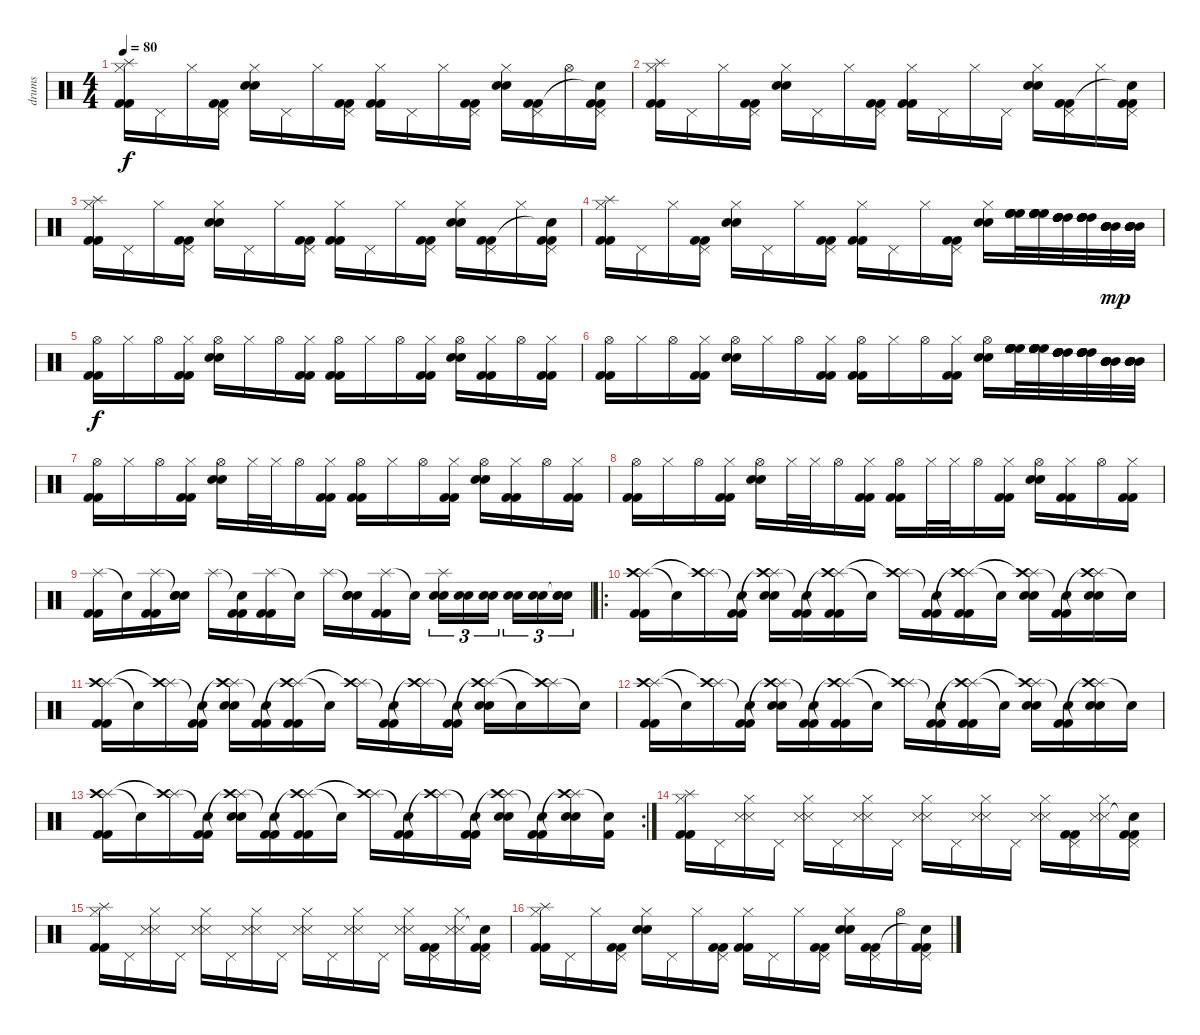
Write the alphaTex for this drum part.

\track ("drums" "drums") {instrument percussion}
\staff {score}
\articulation defaults
\ts (4 4)
\tempo 80
\clef neutral
\ks c
("Hi-Hat (closed)" "Splash (hit)" "Kick (hit) 2" "Kick (hit) 2").16{dy f} "Pedal Hi-Hat (hit)".16 "Hi-Hat (closed)".16 ("Pedal Hi-Hat (hit)" "Kick (hit) 2" "Kick (hit) 2").16 ("Hi-Hat (closed)" "Electric Snare (hit)" "Electric Snare (hit)").16 "Pedal Hi-Hat (hit)".16 "Hi-Hat (closed)".16 ("Pedal Hi-Hat (hit)" "Kick (hit) 2" "Kick (hit) 2").16 ("Hi-Hat (closed)" "Kick (hit) 2" "Kick (hit) 2").16 "Pedal Hi-Hat (hit)".16 "Hi-Hat (closed)".16 ("Pedal Hi-Hat (hit)" "Kick (hit) 2" "Kick (hit) 2").16 ("Hi-Hat (closed)" "Electric Snare (hit)" "Electric Snare (hit)").16 ("Pedal Hi-Hat (hit)" "Kick (hit) 2" "Kick (hit) 2").16 "Hi-Hat (open)".16 ("Pedal Hi-Hat (hit)" "Snare (hit)"{t} "Kick (hit) 2" "Kick (hit) 2").16 |
("Hi-Hat (closed)" "Splash (hit)" "Kick (hit) 2" "Kick (hit) 2").16 "Pedal Hi-Hat (hit)".16 "Hi-Hat (closed)".16 ("Pedal Hi-Hat (hit)" "Kick (hit) 2" "Kick (hit) 2").16 ("Hi-Hat (closed)" "Electric Snare (hit)" "Electric Snare (hit)").16 "Pedal Hi-Hat (hit)".16 "Hi-Hat (closed)".16 ("Pedal Hi-Hat (hit)" "Kick (hit) 2" "Kick (hit) 2").16 ("Hi-Hat (closed)" "Kick (hit) 2" "Kick (hit) 2").16 "Pedal Hi-Hat (hit)".16 "Hi-Hat (closed)".16 "Pedal Hi-Hat (hit)".16 ("Hi-Hat (closed)" "Electric Snare (hit)" "Electric Snare (hit)").16 ("Pedal Hi-Hat (hit)" "Kick (hit) 2" "Kick (hit) 2").16 "Hi-Hat (closed)".16 ("Pedal Hi-Hat (hit)" "Snare (hit)"{t} "Kick (hit) 2" "Kick (hit) 2").16 |
("Hi-Hat (closed)" "Splash (hit)" "Kick (hit) 2" "Kick (hit) 2").16 "Pedal Hi-Hat (hit)".16 "Hi-Hat (closed)".16 ("Pedal Hi-Hat (hit)" "Kick (hit) 2" "Kick (hit) 2").16 ("Hi-Hat (closed)" "Electric Snare (hit)" "Electric Snare (hit)").16 "Pedal Hi-Hat (hit)".16 "Hi-Hat (closed)".16 ("Pedal Hi-Hat (hit)" "Kick (hit) 2" "Kick (hit) 2").16 ("Hi-Hat (closed)" "Kick (hit) 2" "Kick (hit) 2").16 "Pedal Hi-Hat (hit)".16 "Hi-Hat (closed)".16 ("Pedal Hi-Hat (hit)" "Kick (hit) 2" "Kick (hit) 2").16 ("Hi-Hat (closed)" "Electric Snare (hit)" "Electric Snare (hit)").16 ("Pedal Hi-Hat (hit)" "Kick (hit) 2" "Kick (hit) 2").16 "Hi-Hat (closed)".16 ("Pedal Hi-Hat (hit)" "Snare (hit)"{t} "Kick (hit) 2" "Kick (hit) 2").16 |
("Hi-Hat (closed)" "Splash (hit)" "Kick (hit) 2" "Kick (hit) 2").16 "Pedal Hi-Hat (hit)".16 "Hi-Hat (closed)".16 ("Pedal Hi-Hat (hit)" "Kick (hit) 2" "Kick (hit) 2").16 ("Hi-Hat (closed)" "Electric Snare (hit)" "Electric Snare (hit)").16 "Pedal Hi-Hat (hit)".16 "Hi-Hat (closed)".16 ("Pedal Hi-Hat (hit)" "Kick (hit) 2" "Kick (hit) 2").16 ("Hi-Hat (closed)" "Kick (hit) 2" "Kick (hit) 2").16 "Pedal Hi-Hat (hit)".16 "Hi-Hat (closed)".16 ("Pedal Hi-Hat (hit)" "Kick (hit) 2" "Kick (hit) 2").16 ("Hi-Hat (closed)" "Electric Snare (hit)" "Electric Snare (hit)").16 ("High Floor Tom (hit)" "High Floor Tom (hit)" "High Floor Tom (hit)" "High Floor Tom (hit)" "High Floor Tom (hit)").32 ("High Floor Tom (hit)" "High Floor Tom (hit)" "High Floor Tom (hit)" "High Floor Tom (hit)" "High Floor Tom (hit)").32 ("High Tom (hit)" "High Tom (hit)" "High Tom (hit)" "High Tom (hit)" "High Tom (hit)").32 ("High Tom (hit)" "High Tom (hit)" "High Tom (hit)" "High Tom (hit)" "High Tom (hit)").32 ("Mid Tom (hit)" "Mid Tom (hit)" "Mid Tom (hit)" "Mid Tom (hit)" "Mid Tom (hit)").32{dy mp} ("Mid Tom (hit)" "Mid Tom (hit)" "Mid Tom (hit)" "Mid Tom (hit)" "Mid Tom (hit)").32 |
("Hi-Hat (open)" "Kick (hit) 2" "Kick (hit) 2").16{dy f} "Hi-Hat (closed)".16 "Hi-Hat (open)".16 ("Hi-Hat (closed)" "Kick (hit) 2" "Kick (hit) 2").16 ("Hi-Hat (open)" "Electric Snare (hit)" "Electric Snare (hit)").16 "Hi-Hat (closed)".16 "Hi-Hat (open)".16 ("Hi-Hat (closed)" "Kick (hit) 2" "Kick (hit) 2").16 ("Hi-Hat (open)" "Kick (hit) 2" "Kick (hit) 2").16 "Hi-Hat (closed)".16 "Hi-Hat (open)".16 ("Hi-Hat (closed)" "Kick (hit) 2" "Kick (hit) 2").16 ("Hi-Hat (open)" "Electric Snare (hit)" "Electric Snare (hit)").16 ("Hi-Hat (closed)" "Kick (hit) 2" "Kick (hit) 2").16 "Hi-Hat (open)".16 ("Hi-Hat (closed)" "Kick (hit) 2" "Kick (hit) 2").16 |
("Hi-Hat (open)" "Kick (hit) 2" "Kick (hit) 2").16 "Hi-Hat (closed)".16 "Hi-Hat (open)".16 ("Hi-Hat (closed)" "Kick (hit) 2" "Kick (hit) 2").16 ("Hi-Hat (open)" "Electric Snare (hit)" "Electric Snare (hit)").16 "Hi-Hat (closed)".16 "Hi-Hat (open)".16 ("Hi-Hat (closed)" "Kick (hit) 2" "Kick (hit) 2").16 ("Hi-Hat (open)" "Kick (hit) 2" "Kick (hit) 2").16 "Hi-Hat (closed)".16 "Hi-Hat (open)".16 ("Hi-Hat (closed)" "Kick (hit) 2" "Kick (hit) 2").16 ("Hi-Hat (open)" "Electric Snare (hit)" "Electric Snare (hit)").16 ("High Floor Tom (hit)" "High Floor Tom (hit)" "High Floor Tom (hit)" "High Floor Tom (hit)" "High Floor Tom (hit)" "High Floor Tom (hit)").32 ("High Floor Tom (hit)" "High Floor Tom (hit)" "High Floor Tom (hit)" "High Floor Tom (hit)" "High Floor Tom (hit)" "High Floor Tom (hit)").32 ("High Tom (hit)" "High Tom (hit)" "High Tom (hit)" "High Tom (hit)" "High Tom (hit)" "High Tom (hit)").32 ("High Tom (hit)" "High Tom (hit)" "High Tom (hit)" "High Tom (hit)" "High Tom (hit)" "High Tom (hit)").32 ("Mid Tom (hit)" "Mid Tom (hit)" "Mid Tom (hit)" "Mid Tom (hit)" "Mid Tom (hit)" "Mid Tom (hit)").32 ("Mid Tom (hit)" "Mid Tom (hit)" "Mid Tom (hit)" "Mid Tom (hit)" "Mid Tom (hit)" "Mid Tom (hit)").32 |
("Hi-Hat (open)" "Kick (hit) 2" "Kick (hit) 2").16 "Hi-Hat (closed)".16 "Hi-Hat (open)".16 ("Hi-Hat (closed)" "Kick (hit) 2" "Kick (hit) 2").16 ("Hi-Hat (open)" "Electric Snare (hit)" "Electric Snare (hit)").16 "Hi-Hat (closed)".32 "Hi-Hat (closed)".32 "Hi-Hat (open)".16 ("Hi-Hat (closed)" "Kick (hit) 2" "Kick (hit) 2").16 ("Hi-Hat (open)" "Kick (hit) 2" "Kick (hit) 2").16 "Hi-Hat (closed)".16 "Hi-Hat (open)".16 ("Hi-Hat (closed)" "Kick (hit) 2" "Kick (hit) 2").16 ("Hi-Hat (open)" "Electric Snare (hit)" "Electric Snare (hit)").16 ("Hi-Hat (closed)" "Kick (hit) 2" "Kick (hit) 2").16 "Hi-Hat (open)".16 ("Hi-Hat (closed)" "Kick (hit) 2" "Kick (hit) 2").16 |
("Hi-Hat (open)" "Kick (hit) 2" "Kick (hit) 2").16 "Hi-Hat (closed)".16 "Hi-Hat (open)".16 ("Hi-Hat (closed)" "Kick (hit) 2" "Kick (hit) 2").16 ("Hi-Hat (open)" "Electric Snare (hit)" "Electric Snare (hit)").16 "Hi-Hat (closed)".32 "Hi-Hat (closed)".32 "Hi-Hat (open)".16 ("Hi-Hat (closed)" "Kick (hit) 2" "Kick (hit) 2").16 ("Hi-Hat (open)" "Kick (hit) 2" "Kick (hit) 2").16 "Hi-Hat (closed)".32 "Hi-Hat (closed)".32 "Hi-Hat (open)".16 ("Hi-Hat (closed)" "Kick (hit) 2" "Kick (hit) 2").16 ("Hi-Hat (open)" "Electric Snare (hit)" "Electric Snare (hit)").16 ("Hi-Hat (closed)" "Kick (hit) 2" "Kick (hit) 2").16 "Hi-Hat (open)".16 ("Hi-Hat (closed)" "Kick (hit) 2" "Kick (hit) 2").16 |
("Splash (hit)" "Kick (hit) 2" "Kick (hit) 2").16 "Snare (hit)"{t}.16 ("Splash (hit)" "Kick (hit) 2" "Kick (hit) 2").16 ("Snare (hit)"{t} "Electric Snare (hit)" "Electric Snare (hit)").16 "Splash (hit)".16 ("Snare (hit)"{t} "Kick (hit) 2" "Kick (hit) 2").16 ("Splash (hit)" "Kick (hit) 2" "Kick (hit) 2").16 "Snare (hit)"{t}.16 "Splash (hit)".16 ("Snare (hit)"{t} "Electric Snare (hit)" "Electric Snare (hit)").16 ("Splash (hit)" "Kick (hit) 2" "Kick (hit) 2").16 "Snare (hit)"{t}.16 ("Splash (hit)" "Electric Snare (hit)" "Electric Snare (hit)").16{tu (3 2)} ("Electric Snare (hit)" "Electric Snare (hit)").16{tu (3 2)} ("Electric Snare (hit)" "Electric Snare (hit)").16{tu (3 2)} ("Electric Snare (hit)" "Electric Snare (hit)").16{tu (3 2)} ("Electric Snare (hit)" "Electric Snare (hit)").16{tu (3 2)} ("Snare (hit)"{t} "Electric Snare (hit)" "Electric Snare (hit)").16{tu (3 2)} |
\ro
("Splash (hit)" "Crash high (hit)" "Kick (hit) 2" "Kick (hit) 2").16 "Snare (hit)"{t}.16 ("Splash (hit)" "Crash high (hit)"{t}).16 ("Snare (hit)"{t} "Kick (hit) 2" "Kick (hit) 2").16 ("Splash (hit)" "Crash high (hit)"{t} "Electric Snare (hit)" "Electric Snare (hit)").16 ("Snare (hit)"{t} "Kick (hit) 2" "Kick (hit) 2").16 ("Splash (hit)" "Crash high (hit)"{t} "Kick (hit) 2" "Kick (hit) 2").16 "Snare (hit)"{t}.16 ("Splash (hit)" "Crash high (hit)"{t}).16 ("Snare (hit)"{t} "Kick (hit) 2" "Kick (hit) 2").16 ("Splash (hit)" "Crash high (hit)"{t} "Kick (hit) 2" "Kick (hit) 2").16 "Snare (hit)"{t}.16 ("Splash (hit)" "Crash high (hit)"{t} "Electric Snare (hit)" "Electric Snare (hit)").16 ("Snare (hit)"{t} "Kick (hit) 2" "Kick (hit) 2").16 ("Splash (hit)" "Crash high (hit)"{t} "Electric Snare (hit)" "Electric Snare (hit)").16 "Snare (hit)"{t}.16 |
("Splash (hit)" "Crash high (hit)" "Kick (hit) 2" "Kick (hit) 2").16 "Snare (hit)"{t}.16 ("Splash (hit)" "Crash high (hit)"{t}).16 ("Snare (hit)"{t} "Kick (hit) 2" "Kick (hit) 2").16 ("Splash (hit)" "Crash high (hit)"{t} "Electric Snare (hit)" "Electric Snare (hit)").16 ("Snare (hit)"{t} "Kick (hit) 2" "Kick (hit) 2").16 ("Splash (hit)" "Crash high (hit)"{t} "Kick (hit) 2" "Kick (hit) 2").16 "Snare (hit)"{t}.16 ("Splash (hit)" "Crash high (hit)"{t}).16 ("Snare (hit)"{t} "Kick (hit) 2" "Kick (hit) 2").16 ("Splash (hit)" "Crash high (hit)"{t}).16 ("Snare (hit)"{t} "Kick (hit) 2" "Kick (hit) 2").16 ("Splash (hit)" "Crash high (hit)"{t} "Electric Snare (hit)" "Electric Snare (hit)").16 "Snare (hit)"{t}.16 ("Splash (hit)" "Crash high (hit)"{t}).16 "Snare (hit)"{t}.16 |
("Splash (hit)" "Crash high (hit)" "Kick (hit) 2" "Kick (hit) 2").16 "Snare (hit)"{t}.16 ("Splash (hit)" "Crash high (hit)"{t}).16 ("Snare (hit)"{t} "Kick (hit) 2" "Kick (hit) 2").16 ("Splash (hit)" "Crash high (hit)"{t} "Electric Snare (hit)" "Electric Snare (hit)").16 ("Snare (hit)"{t} "Kick (hit) 2" "Kick (hit) 2").16 ("Splash (hit)" "Crash high (hit)"{t} "Kick (hit) 2" "Kick (hit) 2").16 "Snare (hit)"{t}.16 ("Splash (hit)" "Crash high (hit)"{t}).16 ("Snare (hit)"{t} "Kick (hit) 2" "Kick (hit) 2").16 ("Splash (hit)" "Crash high (hit)"{t} "Kick (hit) 2" "Kick (hit) 2").16 "Snare (hit)"{t}.16 ("Splash (hit)" "Crash high (hit)"{t} "Electric Snare (hit)" "Electric Snare (hit)").16 ("Snare (hit)"{t} "Kick (hit) 2" "Kick (hit) 2").16 ("Splash (hit)" "Crash high (hit)"{t} "Electric Snare (hit)" "Electric Snare (hit)").16 "Snare (hit)"{t}.16 |
\rc 2
("Splash (hit)" "Crash high (hit)" "Kick (hit) 2" "Kick (hit) 2").16 "Snare (hit)"{t}.16 ("Splash (hit)" "Crash high (hit)"{t}).16 ("Snare (hit)"{t} "Kick (hit) 2" "Kick (hit) 2").16 ("Splash (hit)" "Crash high (hit)"{t} "Electric Snare (hit)" "Electric Snare (hit)").16 ("Snare (hit)"{t} "Kick (hit) 2" "Kick (hit) 2").16 ("Splash (hit)" "Crash high (hit)"{t} "Kick (hit) 2" "Kick (hit) 2").16 "Snare (hit)"{t}.16 ("Splash (hit)" "Crash high (hit)"{t}).16 ("Snare (hit)"{t} "Kick (hit) 2" "Kick (hit) 2").16 ("Splash (hit)" "Crash high (hit)"{t}).16 ("Snare (hit)"{t} "Kick (hit) 2" "Kick (hit) 2").16 ("Splash (hit)" "Crash high (hit)"{t} "Electric Snare (hit)" "Electric Snare (hit)").16 ("Snare (hit)"{t} "Kick (hit) 2" "Kick (hit) 2").16 ("Splash (hit)" "Crash high (hit)"{t} "Electric Snare (hit)" "Electric Snare (hit)").16 ("Snare (hit)"{t} "Kick (hit) 2").16 |
("Hi-Hat (closed)" "Splash (hit)" "Kick (hit) 2" "Kick (hit) 2").16 "Pedal Hi-Hat (hit)".16 ("Hi-Hat (closed)" "Snare (side stick) 3" "Snare (side stick) 3").16 "Pedal Hi-Hat (hit)".16 ("Hi-Hat (closed)" "Snare (side stick) 3" "Snare (side stick) 3").16 "Pedal Hi-Hat (hit)".16 ("Hi-Hat (closed)" "Snare (side stick) 3" "Snare (side stick) 3").16 "Pedal Hi-Hat (hit)".16 ("Hi-Hat (closed)" "Snare (side stick) 3" "Snare (side stick) 3").16 "Pedal Hi-Hat (hit)".16 ("Hi-Hat (closed)" "Snare (side stick) 3" "Snare (side stick) 3").16 "Pedal Hi-Hat (hit)".16 ("Hi-Hat (closed)" "Snare (side stick) 3" "Snare (side stick) 3").16 ("Pedal Hi-Hat (hit)" "Kick (hit) 2" "Kick (hit) 2").16 ("Hi-Hat (closed)" "Snare (side stick) 3" "Snare (side stick) 3").16 ("Pedal Hi-Hat (hit)" "Snare (hit)"{t} "Kick (hit) 2" "Kick (hit) 2").16 |
("Hi-Hat (closed)" "Splash (hit)" "Kick (hit) 2" "Kick (hit) 2").16 "Pedal Hi-Hat (hit)".16 ("Hi-Hat (closed)" "Snare (side stick) 3" "Snare (side stick) 3").16 "Pedal Hi-Hat (hit)".16 ("Hi-Hat (closed)" "Snare (side stick) 3" "Snare (side stick) 3").16 "Pedal Hi-Hat (hit)".16 ("Hi-Hat (closed)" "Snare (side stick) 3" "Snare (side stick) 3").16 "Pedal Hi-Hat (hit)".16 ("Hi-Hat (closed)" "Snare (side stick) 3" "Snare (side stick) 3").16 "Pedal Hi-Hat (hit)".16 ("Hi-Hat (closed)" "Snare (side stick) 3" "Snare (side stick) 3").16 "Pedal Hi-Hat (hit)".16 ("Hi-Hat (closed)" "Snare (side stick) 3" "Snare (side stick) 3").16 ("Pedal Hi-Hat (hit)" "Kick (hit) 2" "Kick (hit) 2").16 ("Hi-Hat (closed)" "Snare (side stick) 3" "Snare (side stick) 3").16 ("Pedal Hi-Hat (hit)" "Snare (hit)"{t} "Kick (hit) 2" "Kick (hit) 2").16 |
("Hi-Hat (closed)" "Splash (hit)" "Kick (hit) 2" "Kick (hit) 2").16 "Pedal Hi-Hat (hit)".16 "Hi-Hat (closed)".16 ("Pedal Hi-Hat (hit)" "Kick (hit) 2" "Kick (hit) 2").16 ("Hi-Hat (closed)" "Electric Snare (hit)" "Electric Snare (hit)").16 "Pedal Hi-Hat (hit)".16 "Hi-Hat (closed)".16 ("Pedal Hi-Hat (hit)" "Kick (hit) 2" "Kick (hit) 2").16 ("Hi-Hat (closed)" "Kick (hit) 2" "Kick (hit) 2").16 "Pedal Hi-Hat (hit)".16 "Hi-Hat (closed)".16 ("Pedal Hi-Hat (hit)" "Kick (hit) 2" "Kick (hit) 2").16 ("Hi-Hat (closed)" "Electric Snare (hit)" "Electric Snare (hit)").16 ("Pedal Hi-Hat (hit)" "Kick (hit) 2" "Kick (hit) 2").16 "Hi-Hat (open)".16 ("Pedal Hi-Hat (hit)" "Snare (hit)"{t} "Kick (hit) 2" "Kick (hit) 2").16
